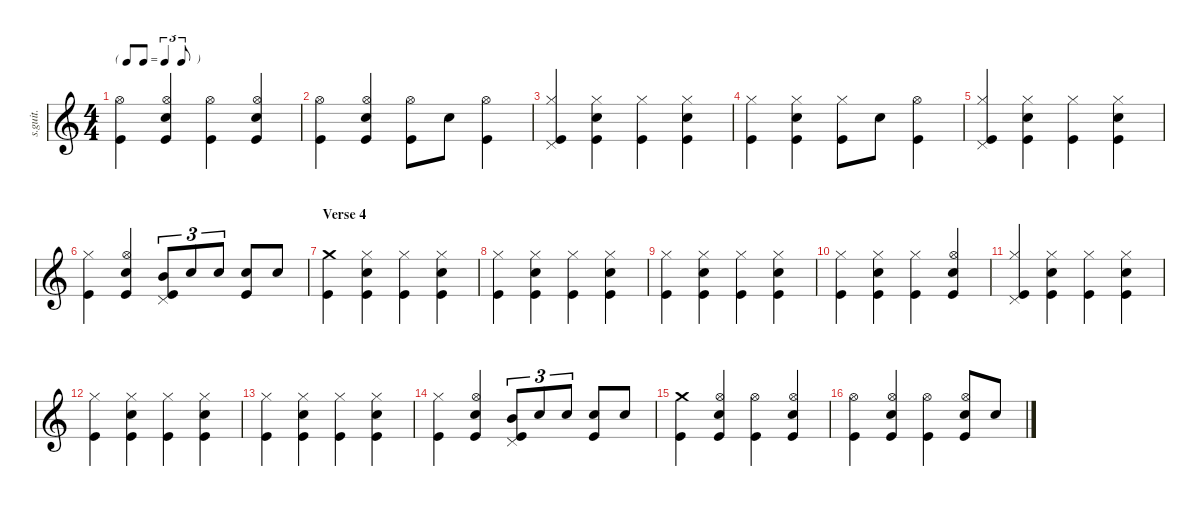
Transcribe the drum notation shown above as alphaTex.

\defaultSystemsLayout 4
\hideDynamics
\bracketExtendMode nobrackets
\track ("Dave Grohl" "s.guit.") {instrument percussion}
\staff {score}
\articulation defaults
\ts (4 4)
\tf triplet8th
\tempo (171 hide)
\clef g2
\ks c
("Kick (hit)" "Hi-Hat (open)").4{lyrics (0 "") lyrics (1 "") lyrics (2 "") lyrics (3 "") lyrics (4 "") dy mf} ("Kick (hit)" "Snare (hit) 2" "Hi-Hat (open)").4{lyrics (0 "") lyrics (1 "") lyrics (2 "") lyrics (3 "") lyrics (4 "")} ("Kick (hit)" "Hi-Hat (open)").4{lyrics (0 "") lyrics (1 "") lyrics (2 "") lyrics (3 "") lyrics (4 "")} ("Kick (hit)" "Snare (hit) 2" "Hi-Hat (open)").4{lyrics (0 "") lyrics (1 "") lyrics (2 "") lyrics (3 "") lyrics (4 "")} |
("Kick (hit)" "Hi-Hat (open)").4{lyrics (0 "") lyrics (1 "") lyrics (2 "") lyrics (3 "") lyrics (4 "")} ("Kick (hit)" "Snare (hit) 2" "Hi-Hat (open)").4{lyrics (0 "") lyrics (1 "") lyrics (2 "") lyrics (3 "") lyrics (4 "")} ("Kick (hit)" "Hi-Hat (open)").8{lyrics (0 "") lyrics (1 "") lyrics (2 "") lyrics (3 "") lyrics (4 "")} "Snare (hit) 2".8{lyrics (0 "") lyrics (1 "") lyrics (2 "") lyrics (3 "") lyrics (4 "")} ("Kick (hit)" "Hi-Hat (open)").4{lyrics (0 "") lyrics (1 "") lyrics (2 "") lyrics (3 "") lyrics (4 "")} |
("Kick (hit)" "Hi-Hat (closed)" "Pedal Hi-Hat (hit)").4{lyrics (0 "") lyrics (1 "") lyrics (2 "") lyrics (3 "") lyrics (4 "")} ("Kick (hit)" "Snare (hit) 2" "Hi-Hat (closed)").4{lyrics (0 "") lyrics (1 "") lyrics (2 "") lyrics (3 "") lyrics (4 "")} ("Kick (hit)" "Hi-Hat (closed)").4{lyrics (0 "") lyrics (1 "") lyrics (2 "") lyrics (3 "") lyrics (4 "")} ("Kick (hit)" "Snare (hit) 2" "Hi-Hat (closed)").4{lyrics (0 "") lyrics (1 "") lyrics (2 "") lyrics (3 "") lyrics (4 "")} |
("Kick (hit)" "Hi-Hat (closed)").4{lyrics (0 "") lyrics (1 "") lyrics (2 "") lyrics (3 "") lyrics (4 "")} ("Kick (hit)" "Snare (hit) 2" "Hi-Hat (closed)").4{lyrics (0 "") lyrics (1 "") lyrics (2 "") lyrics (3 "") lyrics (4 "")} ("Kick (hit)" "Hi-Hat (closed)").8{lyrics (0 "") lyrics (1 "") lyrics (2 "") lyrics (3 "") lyrics (4 "")} "Snare (hit) 2".8{lyrics (0 "") lyrics (1 "") lyrics (2 "") lyrics (3 "") lyrics (4 "")} ("Kick (hit)" "Hi-Hat (open)").4{lyrics (0 "") lyrics (1 "") lyrics (2 "") lyrics (3 "") lyrics (4 "")} |
("Kick (hit)" "Hi-Hat (closed)" "Pedal Hi-Hat (hit)").4{lyrics (0 "") lyrics (1 "") lyrics (2 "") lyrics (3 "") lyrics (4 "")} ("Kick (hit)" "Snare (hit) 2" "Hi-Hat (closed)").4{lyrics (0 "") lyrics (1 "") lyrics (2 "") lyrics (3 "") lyrics (4 "")} ("Kick (hit)" "Hi-Hat (closed)").4{lyrics (0 "") lyrics (1 "") lyrics (2 "") lyrics (3 "") lyrics (4 "")} ("Kick (hit)" "Snare (hit) 2" "Hi-Hat (closed)").4{lyrics (0 "") lyrics (1 "") lyrics (2 "") lyrics (3 "") lyrics (4 "")} |
("Kick (hit)" "Hi-Hat (closed)").4{lyrics (0 "") lyrics (1 "") lyrics (2 "") lyrics (3 "") lyrics (4 "")} ("Kick (hit)" "Snare (hit) 2" "Hi-Hat (open)").4{lyrics (0 "") lyrics (1 "") lyrics (2 "") lyrics (3 "") lyrics (4 "")} ("Kick (hit)" "Pedal Hi-Hat (hit)" "Mid Tom (hit)").8{tu (3 2) lyrics (0 "") lyrics (1 "") lyrics (2 "") lyrics (3 "") lyrics (4 "")} "Snare (hit) 2".8{tu (3 2) lyrics (0 "") lyrics (1 "") lyrics (2 "") lyrics (3 "") lyrics (4 "")} "Snare (hit) 2".8{tu (3 2) lyrics (0 "") lyrics (1 "") lyrics (2 "") lyrics (3 "") lyrics (4 "")} ("Kick (hit)" "Snare (hit) 2").8{lyrics (0 "") lyrics (1 "") lyrics (2 "") lyrics (3 "") lyrics (4 "")} "Snare (hit) 2".8{lyrics (0 "") lyrics (1 "") lyrics (2 "") lyrics (3 "") lyrics (4 "")} |
\section ("" "Verse 4")
("Kick (hit)" "Crash medium (hit)").4{lyrics (0 "") lyrics (1 "") lyrics (2 "") lyrics (3 "") lyrics (4 "")} ("Kick (hit)" "Snare (hit) 2" "Hi-Hat (closed)").4{lyrics (0 "") lyrics (1 "") lyrics (2 "") lyrics (3 "") lyrics (4 "")} ("Kick (hit)" "Hi-Hat (closed)").4{lyrics (0 "") lyrics (1 "") lyrics (2 "") lyrics (3 "") lyrics (4 "")} ("Kick (hit)" "Snare (hit) 2" "Hi-Hat (closed)").4{lyrics (0 "") lyrics (1 "") lyrics (2 "") lyrics (3 "") lyrics (4 "")} |
("Kick (hit)" "Hi-Hat (closed)").4{lyrics (0 "") lyrics (1 "") lyrics (2 "") lyrics (3 "") lyrics (4 "")} ("Kick (hit)" "Snare (hit) 2" "Hi-Hat (closed)").4{lyrics (0 "") lyrics (1 "") lyrics (2 "") lyrics (3 "") lyrics (4 "")} ("Kick (hit)" "Hi-Hat (closed)").4{lyrics (0 "") lyrics (1 "") lyrics (2 "") lyrics (3 "") lyrics (4 "")} ("Kick (hit)" "Snare (hit) 2" "Hi-Hat (closed)").4{lyrics (0 "") lyrics (1 "") lyrics (2 "") lyrics (3 "") lyrics (4 "")} |
("Kick (hit)" "Hi-Hat (closed)").4{lyrics (0 "") lyrics (1 "") lyrics (2 "") lyrics (3 "") lyrics (4 "")} ("Kick (hit)" "Snare (hit) 2" "Hi-Hat (closed)").4{lyrics (0 "") lyrics (1 "") lyrics (2 "") lyrics (3 "") lyrics (4 "")} ("Kick (hit)" "Hi-Hat (closed)").4{lyrics (0 "") lyrics (1 "") lyrics (2 "") lyrics (3 "") lyrics (4 "")} ("Kick (hit)" "Snare (hit) 2" "Hi-Hat (closed)").4{lyrics (0 "") lyrics (1 "") lyrics (2 "") lyrics (3 "") lyrics (4 "")} |
("Kick (hit)" "Hi-Hat (closed)").4{lyrics (0 "") lyrics (1 "") lyrics (2 "") lyrics (3 "") lyrics (4 "")} ("Kick (hit)" "Snare (hit) 2" "Hi-Hat (closed)").4{lyrics (0 "") lyrics (1 "") lyrics (2 "") lyrics (3 "") lyrics (4 "")} ("Kick (hit)" "Hi-Hat (closed)").4{lyrics (0 "") lyrics (1 "") lyrics (2 "") lyrics (3 "") lyrics (4 "")} ("Kick (hit)" "Snare (hit) 2" "Hi-Hat (open)").4{lyrics (0 "") lyrics (1 "") lyrics (2 "") lyrics (3 "") lyrics (4 "")} |
("Kick (hit)" "Hi-Hat (closed)" "Pedal Hi-Hat (hit)").4{lyrics (0 "") lyrics (1 "") lyrics (2 "") lyrics (3 "") lyrics (4 "")} ("Kick (hit)" "Snare (hit) 2" "Hi-Hat (closed)").4{lyrics (0 "") lyrics (1 "") lyrics (2 "") lyrics (3 "") lyrics (4 "")} ("Kick (hit)" "Hi-Hat (closed)").4{lyrics (0 "") lyrics (1 "") lyrics (2 "") lyrics (3 "") lyrics (4 "")} ("Kick (hit)" "Snare (hit) 2" "Hi-Hat (closed)").4{lyrics (0 "") lyrics (1 "") lyrics (2 "") lyrics (3 "") lyrics (4 "")} |
("Kick (hit)" "Hi-Hat (closed)").4{lyrics (0 "") lyrics (1 "") lyrics (2 "") lyrics (3 "") lyrics (4 "")} ("Kick (hit)" "Snare (hit) 2" "Hi-Hat (closed)").4{lyrics (0 "") lyrics (1 "") lyrics (2 "") lyrics (3 "") lyrics (4 "")} ("Kick (hit)" "Hi-Hat (closed)").4{lyrics (0 "") lyrics (1 "") lyrics (2 "") lyrics (3 "") lyrics (4 "")} ("Kick (hit)" "Snare (hit) 2" "Hi-Hat (closed)").4{lyrics (0 "") lyrics (1 "") lyrics (2 "") lyrics (3 "") lyrics (4 "")} |
("Kick (hit)" "Hi-Hat (closed)").4{lyrics (0 "") lyrics (1 "") lyrics (2 "") lyrics (3 "") lyrics (4 "")} ("Kick (hit)" "Snare (hit) 2" "Hi-Hat (closed)").4{lyrics (0 "") lyrics (1 "") lyrics (2 "") lyrics (3 "") lyrics (4 "")} ("Kick (hit)" "Hi-Hat (closed)").4{lyrics (0 "") lyrics (1 "") lyrics (2 "") lyrics (3 "") lyrics (4 "")} ("Kick (hit)" "Snare (hit) 2" "Hi-Hat (closed)").4{lyrics (0 "") lyrics (1 "") lyrics (2 "") lyrics (3 "") lyrics (4 "")} |
("Kick (hit)" "Hi-Hat (closed)").4{lyrics (0 "") lyrics (1 "") lyrics (2 "") lyrics (3 "") lyrics (4 "")} ("Kick (hit)" "Snare (hit) 2" "Hi-Hat (open)").4{lyrics (0 "") lyrics (1 "") lyrics (2 "") lyrics (3 "") lyrics (4 "")} ("Kick (hit)" "Pedal Hi-Hat (hit)" "Mid Tom (hit)").8{tu (3 2) lyrics (0 "") lyrics (1 "") lyrics (2 "") lyrics (3 "") lyrics (4 "")} "Snare (hit) 2".8{tu (3 2) lyrics (0 "") lyrics (1 "") lyrics (2 "") lyrics (3 "") lyrics (4 "")} "Snare (hit) 2".8{tu (3 2) lyrics (0 "") lyrics (1 "") lyrics (2 "") lyrics (3 "") lyrics (4 "")} ("Kick (hit)" "Snare (hit) 2").8{lyrics (0 "") lyrics (1 "") lyrics (2 "") lyrics (3 "") lyrics (4 "")} "Snare (hit) 2".8{lyrics (0 "") lyrics (1 "") lyrics (2 "") lyrics (3 "") lyrics (4 "")} |
("Kick (hit)" "Crash medium (hit)").4{lyrics (0 "") lyrics (1 "") lyrics (2 "") lyrics (3 "") lyrics (4 "")} ("Kick (hit)" "Snare (hit) 2" "Hi-Hat (open)").4{lyrics (0 "") lyrics (1 "") lyrics (2 "") lyrics (3 "") lyrics (4 "")} ("Kick (hit)" "Hi-Hat (open)").4{lyrics (0 "") lyrics (1 "") lyrics (2 "") lyrics (3 "") lyrics (4 "")} ("Kick (hit)" "Snare (hit) 2" "Hi-Hat (open)").4{lyrics (0 "") lyrics (1 "") lyrics (2 "") lyrics (3 "") lyrics (4 "")} |
("Kick (hit)" "Hi-Hat (open)").4{lyrics (0 "") lyrics (1 "") lyrics (2 "") lyrics (3 "") lyrics (4 "")} ("Kick (hit)" "Snare (hit) 2" "Hi-Hat (open)").4{lyrics (0 "") lyrics (1 "") lyrics (2 "") lyrics (3 "") lyrics (4 "")} ("Kick (hit)" "Hi-Hat (open)").4{lyrics (0 "") lyrics (1 "") lyrics (2 "") lyrics (3 "") lyrics (4 "")} ("Kick (hit)" "Snare (hit) 2" "Hi-Hat (open)").8{lyrics (0 "") lyrics (1 "") lyrics (2 "") lyrics (3 "") lyrics (4 "")} "Snare (hit) 2".8{lyrics (0 "") lyrics (1 "") lyrics (2 "") lyrics (3 "") lyrics (4 "")}
